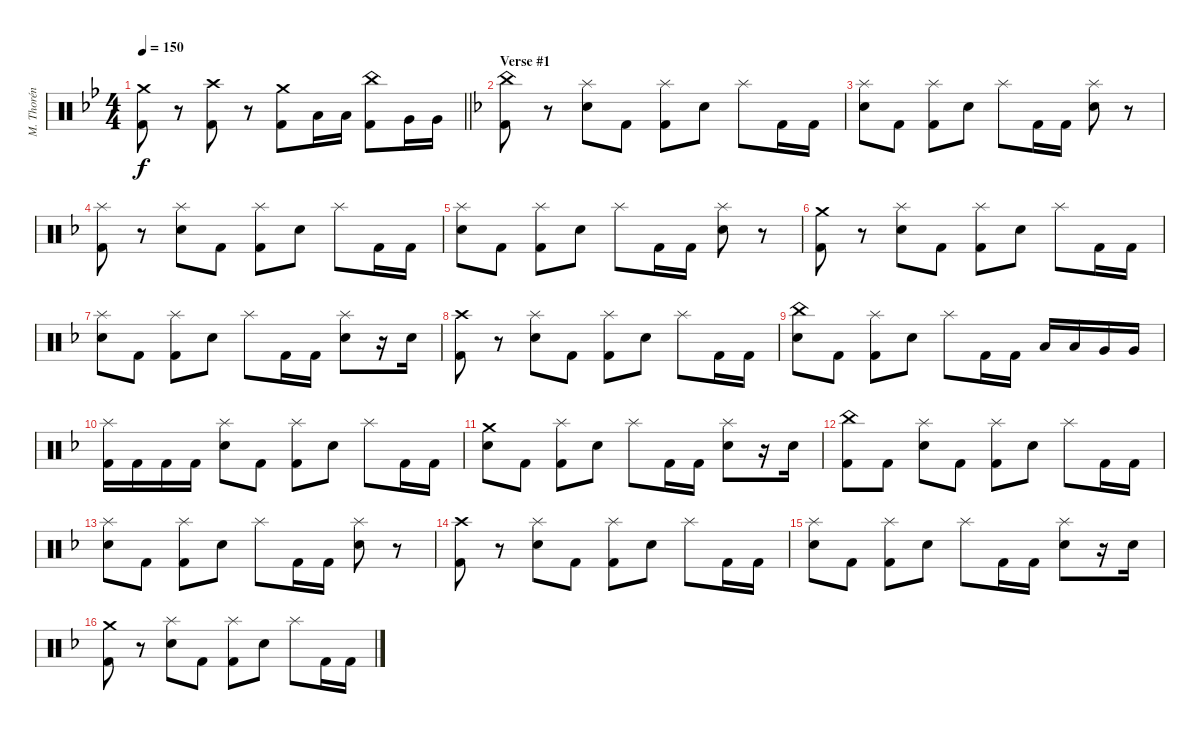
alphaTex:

\track ("M. Thorén (Drums)" "M. Thorén ") {instrument percussion}
\staff {score}
\articulation defaults
\ts (4 4)
\tempo 150
\clef neutral
\barLineRight lightlight
\ks gminor
("Crash medium (hit)" "Kick (hit) 2").8{dy f} r.8 ("Crash high (hit)" "Kick (hit) 2").8 r.8 ("Crash medium (hit)" "Kick (hit) 2").8 "Low Tom (hit)".16 "Low Tom (hit)".16 ("China (hit)" "Kick (hit) 2").8 "Very Low Tom (hit)".16 "Very Low Tom (hit)".16 |
\section ("" "Verse #1")
\ks dminor
("China (hit)" "Kick (hit) 2").8 r.8 ("Splash (hit)" "Electric Snare (hit)").8 "Kick (hit) 2".8 ("Splash (hit)" "Kick (hit) 2").8 "Electric Snare (hit)".8 "Splash (hit)".8 "Kick (hit) 2".16 "Kick (hit) 2".16 |
("Splash (hit)" "Electric Snare (hit)").8 "Kick (hit) 2".8 ("Splash (hit)" "Kick (hit) 2").8 "Electric Snare (hit)".8 "Splash (hit)".8 "Kick (hit) 2".16 "Kick (hit) 2".16 ("Splash (hit)" "Electric Snare (hit)").8 r.8 |
("Splash (hit)" "Kick (hit) 2").8 r.8 ("Splash (hit)" "Electric Snare (hit)").8 "Kick (hit) 2".8 ("Splash (hit)" "Kick (hit) 2").8 "Electric Snare (hit)".8 "Splash (hit)".8 "Kick (hit) 2".16 "Kick (hit) 2".16 |
("Splash (hit)" "Electric Snare (hit)").8 "Kick (hit) 2".8 ("Splash (hit)" "Kick (hit) 2").8 "Electric Snare (hit)".8 "Splash (hit)".8 "Kick (hit) 2".16 "Kick (hit) 2".16 ("Splash (hit)" "Electric Snare (hit)").8 r.8 |
("Crash medium (hit)" "Kick (hit) 2").8 r.8 ("Splash (hit)" "Electric Snare (hit)").8 "Kick (hit) 2".8 ("Splash (hit)" "Kick (hit) 2").8 "Electric Snare (hit)".8 "Splash (hit)".8 "Kick (hit) 2".16 "Kick (hit) 2".16 |
("Splash (hit)" "Electric Snare (hit)").8 "Kick (hit) 2".8 ("Splash (hit)" "Kick (hit) 2").8 "Electric Snare (hit)".8 "Splash (hit)".8 "Kick (hit) 2".16 "Kick (hit) 2".16 ("Splash (hit)" "Electric Snare (hit)").8 r.16 "Electric Snare (hit)".16 |
("Crash high (hit)" "Kick (hit) 2").8 r.8 ("Splash (hit)" "Electric Snare (hit)").8 "Kick (hit) 2".8 ("Splash (hit)" "Kick (hit) 2").8 "Electric Snare (hit)".8 "Splash (hit)".8 "Kick (hit) 2".16 "Kick (hit) 2".16 |
("China (hit)" "Electric Snare (hit)").8 "Kick (hit) 2".8 ("Splash (hit)" "Kick (hit) 2").8 "Electric Snare (hit)".8 "Splash (hit)".8 "Kick (hit) 2".16 "Kick (hit) 2".16 "Low Tom (hit)".16 "Low Tom (hit)".16 "Very Low Tom (hit)".16 "Very Low Tom (hit)".16 |
("Splash (hit)" "Kick (hit) 2").16 "Kick (hit) 2".16 "Kick (hit) 2".16 "Kick (hit) 2".16 ("Splash (hit)" "Electric Snare (hit)").8 "Kick (hit) 2".8 ("Splash (hit)" "Kick (hit) 2").8 "Electric Snare (hit)".8 "Splash (hit)".8 "Kick (hit) 2".16 "Kick (hit) 2".16 |
("Crash medium (hit)" "Electric Snare (hit)").8 "Kick (hit) 2".8 ("Splash (hit)" "Kick (hit) 2").8 "Electric Snare (hit)".8 "Splash (hit)".8 "Kick (hit) 2".16 "Kick (hit) 2".16 ("Splash (hit)" "Electric Snare (hit)").8 r.16 "Electric Snare (hit)".16 |
("China (hit)" "Kick (hit) 2").8 "Kick (hit) 2".8 ("Splash (hit)" "Electric Snare (hit)").8 "Kick (hit) 2".8 ("Splash (hit)" "Kick (hit) 2").8 "Electric Snare (hit)".8 "Splash (hit)".8 "Kick (hit) 2".16 "Kick (hit) 2".16 |
("Splash (hit)" "Electric Snare (hit)").8 "Kick (hit) 2".8 ("Splash (hit)" "Kick (hit) 2").8 "Electric Snare (hit)".8 "Splash (hit)".8 "Kick (hit) 2".16 "Kick (hit) 2".16 ("Splash (hit)" "Electric Snare (hit)").8 r.8 |
("Crash high (hit)" "Kick (hit) 2").8 r.8 ("Splash (hit)" "Electric Snare (hit)").8 "Kick (hit) 2".8 ("Splash (hit)" "Kick (hit) 2").8 "Electric Snare (hit)".8 "Splash (hit)".8 "Kick (hit) 2".16 "Kick (hit) 2".16 |
("Splash (hit)" "Electric Snare (hit)").8 "Kick (hit) 2".8 ("Splash (hit)" "Kick (hit) 2").8 "Electric Snare (hit)".8 "Splash (hit)".8 "Kick (hit) 2".16 "Kick (hit) 2".16 ("Splash (hit)" "Electric Snare (hit)").8 r.16 "Electric Snare (hit)".16 |
("Crash medium (hit)" "Kick (hit) 2").8 r.8 ("Splash (hit)" "Electric Snare (hit)").8 "Kick (hit) 2".8 ("Splash (hit)" "Kick (hit) 2").8 "Electric Snare (hit)".8 "Splash (hit)".8 "Kick (hit) 2".16 "Kick (hit) 2".16
